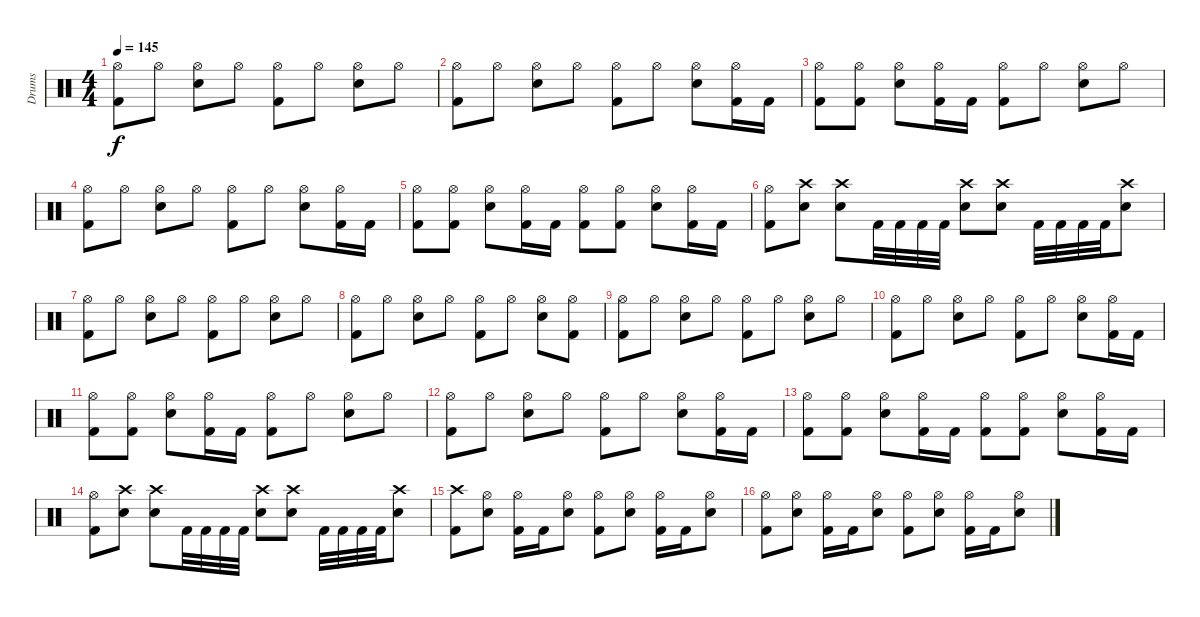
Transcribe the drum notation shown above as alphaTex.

\track ("Drums" "Drums") {instrument percussion}
\staff {score}
\articulation defaults
\ts (4 4)
\tempo 145
\clef neutral
\ks c
("Hi-Hat (open)" "Kick (hit) 2").8{dy f} "Hi-Hat (open)".8 ("Hi-Hat (open)" "Snare (hit) 2").8 "Hi-Hat (open)".8 ("Hi-Hat (open)" "Kick (hit) 2").8 "Hi-Hat (open)".8 ("Hi-Hat (open)" "Snare (hit) 2").8 "Hi-Hat (open)".8 |
("Hi-Hat (open)" "Kick (hit) 2").8 "Hi-Hat (open)".8 ("Hi-Hat (open)" "Snare (hit) 2").8 "Hi-Hat (open)".8 ("Hi-Hat (open)" "Kick (hit) 2").8 "Hi-Hat (open)".8 ("Hi-Hat (open)" "Snare (hit) 2").8 ("Hi-Hat (open)" "Kick (hit) 2").16 "Kick (hit) 2".16 |
("Hi-Hat (open)" "Kick (hit) 2").8 ("Hi-Hat (open)" "Kick (hit) 2").8 ("Hi-Hat (open)" "Snare (hit) 2").8 ("Hi-Hat (open)" "Kick (hit) 2").16 "Kick (hit) 2".16 ("Hi-Hat (open)" "Kick (hit) 2").8 "Hi-Hat (open)".8 ("Hi-Hat (open)" "Snare (hit) 2").8 "Hi-Hat (open)".8 |
("Hi-Hat (open)" "Kick (hit) 2").8 "Hi-Hat (open)".8 ("Hi-Hat (open)" "Snare (hit) 2").8 "Hi-Hat (open)".8 ("Hi-Hat (open)" "Kick (hit) 2").8 "Hi-Hat (open)".8 ("Hi-Hat (open)" "Snare (hit) 2").8 ("Hi-Hat (open)" "Kick (hit) 2").16 "Kick (hit) 2".16 |
("Hi-Hat (open)" "Kick (hit) 2").8 ("Hi-Hat (open)" "Kick (hit) 2").8 ("Hi-Hat (open)" "Snare (hit) 2").8 ("Hi-Hat (open)" "Kick (hit) 2").16 "Kick (hit) 2".16 ("Hi-Hat (open)" "Kick (hit) 2").8 ("Hi-Hat (open)" "Kick (hit) 2").8 ("Hi-Hat (open)" "Snare (hit) 2").8 ("Hi-Hat (open)" "Kick (hit) 2").16 "Kick (hit) 2".16 |
("Hi-Hat (open)" "Kick (hit) 2").8 ("Crash high (hit)" "Snare (hit) 2").8 ("Crash high (hit)" "Snare (hit) 2").8 "Kick (hit) 2".32 "Kick (hit) 2".32 "Kick (hit) 2".32 "Kick (hit) 2".32 ("Crash high (hit)" "Snare (hit) 2").8 ("Crash high (hit)" "Snare (hit) 2").8 "Kick (hit) 2".32 "Kick (hit) 2".32 "Kick (hit) 2".32 "Kick (hit) 2".32 ("Crash high (hit)" "Snare (hit) 2").8 |
("Hi-Hat (open)" "Kick (hit) 2").8 "Hi-Hat (open)".8 ("Hi-Hat (open)" "Snare (hit) 2").8 "Hi-Hat (open)".8 ("Hi-Hat (open)" "Kick (hit) 2").8 "Hi-Hat (open)".8 ("Hi-Hat (open)" "Snare (hit) 2").8 "Hi-Hat (open)".8 |
("Hi-Hat (open)" "Kick (hit) 2").8 "Hi-Hat (open)".8 ("Hi-Hat (open)" "Snare (hit) 2").8 "Hi-Hat (open)".8 ("Hi-Hat (open)" "Kick (hit) 2").8 "Hi-Hat (open)".8 ("Hi-Hat (open)" "Snare (hit) 2").8 ("Hi-Hat (open)" "Kick (hit) 2").8 |
("Hi-Hat (open)" "Kick (hit) 2").8 "Hi-Hat (open)".8 ("Hi-Hat (open)" "Snare (hit) 2").8 "Hi-Hat (open)".8 ("Hi-Hat (open)" "Kick (hit) 2").8 "Hi-Hat (open)".8 ("Hi-Hat (open)" "Snare (hit) 2").8 "Hi-Hat (open)".8 |
("Hi-Hat (open)" "Kick (hit) 2").8 "Hi-Hat (open)".8 ("Hi-Hat (open)" "Snare (hit) 2").8 "Hi-Hat (open)".8 ("Hi-Hat (open)" "Kick (hit) 2").8 "Hi-Hat (open)".8 ("Hi-Hat (open)" "Snare (hit) 2").8 ("Hi-Hat (open)" "Kick (hit) 2").16 "Kick (hit) 2".16 |
("Hi-Hat (open)" "Kick (hit) 2").8 ("Hi-Hat (open)" "Kick (hit) 2").8 ("Hi-Hat (open)" "Snare (hit) 2").8 ("Hi-Hat (open)" "Kick (hit) 2").16 "Kick (hit) 2".16 ("Hi-Hat (open)" "Kick (hit) 2").8 "Hi-Hat (open)".8 ("Hi-Hat (open)" "Snare (hit) 2").8 "Hi-Hat (open)".8 |
("Hi-Hat (open)" "Kick (hit) 2").8 "Hi-Hat (open)".8 ("Hi-Hat (open)" "Snare (hit) 2").8 "Hi-Hat (open)".8 ("Hi-Hat (open)" "Kick (hit) 2").8 "Hi-Hat (open)".8 ("Hi-Hat (open)" "Snare (hit) 2").8 ("Hi-Hat (open)" "Kick (hit) 2").16 "Kick (hit) 2".16 |
("Hi-Hat (open)" "Kick (hit) 2").8 ("Hi-Hat (open)" "Kick (hit) 2").8 ("Hi-Hat (open)" "Snare (hit) 2").8 ("Hi-Hat (open)" "Kick (hit) 2").16 "Kick (hit) 2".16 ("Hi-Hat (open)" "Kick (hit) 2").8 ("Hi-Hat (open)" "Kick (hit) 2").8 ("Hi-Hat (open)" "Snare (hit) 2").8 ("Hi-Hat (open)" "Kick (hit) 2").16 "Kick (hit) 2".16 |
("Hi-Hat (open)" "Kick (hit) 2").8 ("Crash high (hit)" "Snare (hit) 2").8 ("Crash high (hit)" "Snare (hit) 2").8 "Kick (hit) 2".32 "Kick (hit) 2".32 "Kick (hit) 2".32 "Kick (hit) 2".32 ("Crash high (hit)" "Snare (hit) 2").8 ("Crash high (hit)" "Snare (hit) 2").8 "Kick (hit) 2".32 "Kick (hit) 2".32 "Kick (hit) 2".32 "Kick (hit) 2".32 ("Crash high (hit)" "Snare (hit) 2").8 |
("Crash high (hit)" "Kick (hit) 2").8 ("Hi-Hat (open)" "Snare (hit) 2").8 ("Hi-Hat (open)" "Kick (hit) 2").16 "Kick (hit) 2".16 ("Hi-Hat (open)" "Snare (hit) 2").8 ("Hi-Hat (open)" "Kick (hit) 2").8 ("Hi-Hat (open)" "Snare (hit) 2").8 ("Hi-Hat (open)" "Kick (hit) 2").16 "Kick (hit) 2".16 ("Hi-Hat (open)" "Snare (hit) 2").8 |
("Hi-Hat (open)" "Kick (hit) 2").8 ("Hi-Hat (open)" "Snare (hit) 2").8 ("Hi-Hat (open)" "Kick (hit) 2").16 "Kick (hit) 2".16 ("Hi-Hat (open)" "Snare (hit) 2").8 ("Hi-Hat (open)" "Kick (hit) 2").8 ("Hi-Hat (open)" "Snare (hit) 2").8 ("Hi-Hat (open)" "Kick (hit) 2").16 "Kick (hit) 2".16 ("Hi-Hat (open)" "Snare (hit) 2").8
